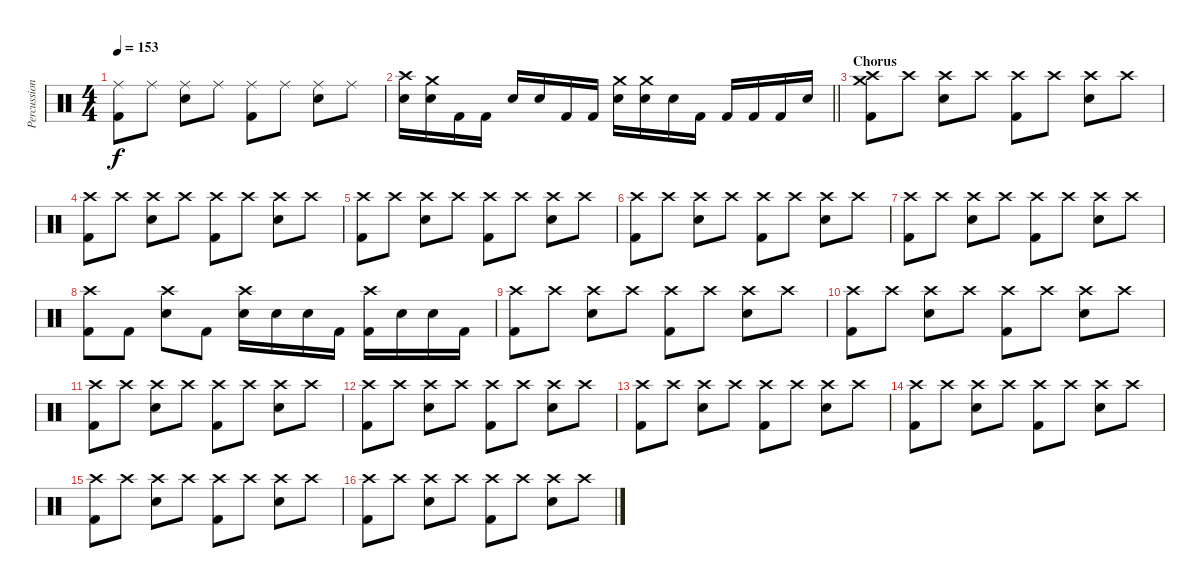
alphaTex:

\track ("Percussion" "Percussion") {instrument percussion}
\staff {score}
\articulation defaults
\ts (4 4)
\tempo 153
\clef neutral
\ks c
("Ride (middle)" "Kick (hit) 2").8{dy f} "Ride (middle)".8 ("Ride (middle)" "Snare (hit) 2").8 "Ride (middle)".8 ("Ride (middle)" "Kick (hit) 2").8 "Ride (middle)".8 ("Ride (middle)" "Snare (hit) 2").8 "Ride (middle)".8 |
\barLineRight lightlight
("Crash high (hit)" "Snare (hit) 2").16 ("Crash medium (hit)" "Snare (hit) 2").16 "Kick (hit) 2".16 "Kick (hit) 2".16 "Snare (hit) 2".16 "Snare (hit) 2".16 "Kick (hit) 2".16 "Kick (hit) 2".16 ("Crash medium (hit)" "Snare (hit) 2").16 ("Crash medium (hit)" "Snare (hit) 2").16 "Snare (hit) 2".16 "Kick (hit) 2".16 "Kick (hit) 2".16 "Kick (hit) 2".16 "Kick (hit) 2".16 "Snare (hit) 2".16 |
\section ("" "Chorus")
("Crash high (hit)" "Crash medium (hit)" "Kick (hit) 2").8 "Crash high (hit)".8 ("Crash high (hit)" "Snare (hit) 2").8 "Crash high (hit)".8 ("Crash high (hit)" "Kick (hit) 2").8 "Crash high (hit)".8 ("Crash high (hit)" "Snare (hit) 2").8 "Crash high (hit)".8 |
("Crash high (hit)" "Kick (hit) 2").8 "Crash high (hit)".8 ("Crash high (hit)" "Snare (hit) 2").8 "Crash high (hit)".8 ("Crash high (hit)" "Kick (hit) 2").8 "Crash high (hit)".8 ("Crash high (hit)" "Snare (hit) 2").8 "Crash high (hit)".8 |
("Crash high (hit)" "Kick (hit) 2").8 "Crash high (hit)".8 ("Crash high (hit)" "Snare (hit) 2").8 "Crash high (hit)".8 ("Crash high (hit)" "Kick (hit) 2").8 "Crash high (hit)".8 ("Crash high (hit)" "Snare (hit) 2").8 "Crash high (hit)".8 |
("Crash high (hit)" "Kick (hit) 2").8 "Crash high (hit)".8 ("Crash high (hit)" "Snare (hit) 2").8 "Crash high (hit)".8 ("Crash high (hit)" "Kick (hit) 2").8 "Crash high (hit)".8 ("Crash high (hit)" "Snare (hit) 2").8 "Crash high (hit)".8 |
("Crash high (hit)" "Kick (hit) 2").8 "Crash high (hit)".8 ("Crash high (hit)" "Snare (hit) 2").8 "Crash high (hit)".8 ("Crash high (hit)" "Kick (hit) 2").8 "Crash high (hit)".8 ("Crash high (hit)" "Snare (hit) 2").8 "Crash high (hit)".8 |
("Crash high (hit)" "Kick (hit) 2").8 "Kick (hit) 2".8 ("Crash high (hit)" "Snare (hit) 2").8 "Kick (hit) 2".8 ("Crash high (hit)" "Snare (hit) 2").16 "Snare (hit) 2".16 "Snare (hit) 2".16 "Kick (hit) 2".16 ("Crash high (hit)" "Kick (hit) 2").16 "Snare (hit) 2".16 "Snare (hit) 2".16 "Kick (hit) 2".16 |
("Crash high (hit)" "Kick (hit) 2").8 "Crash high (hit)".8 ("Crash high (hit)" "Snare (hit) 2").8 "Crash high (hit)".8 ("Crash high (hit)" "Kick (hit) 2").8 "Crash high (hit)".8 ("Crash high (hit)" "Snare (hit) 2").8 "Crash high (hit)".8 |
("Crash high (hit)" "Kick (hit) 2").8 "Crash high (hit)".8 ("Crash high (hit)" "Snare (hit) 2").8 "Crash high (hit)".8 ("Crash high (hit)" "Kick (hit) 2").8 "Crash high (hit)".8 ("Crash high (hit)" "Snare (hit) 2").8 "Crash high (hit)".8 |
("Crash high (hit)" "Kick (hit) 2").8 "Crash high (hit)".8 ("Crash high (hit)" "Snare (hit) 2").8 "Crash high (hit)".8 ("Crash high (hit)" "Kick (hit) 2").8 "Crash high (hit)".8 ("Crash high (hit)" "Snare (hit) 2").8 "Crash high (hit)".8 |
("Crash high (hit)" "Kick (hit) 2").8 "Crash high (hit)".8 ("Crash high (hit)" "Snare (hit) 2").8 "Crash high (hit)".8 ("Crash high (hit)" "Kick (hit) 2").8 "Crash high (hit)".8 ("Crash high (hit)" "Snare (hit) 2").8 "Crash high (hit)".8 |
("Crash high (hit)" "Kick (hit) 2").8 "Crash high (hit)".8 ("Crash high (hit)" "Snare (hit) 2").8 "Crash high (hit)".8 ("Crash high (hit)" "Kick (hit) 2").8 "Crash high (hit)".8 ("Crash high (hit)" "Snare (hit) 2").8 "Crash high (hit)".8 |
("Crash high (hit)" "Kick (hit) 2").8 "Crash high (hit)".8 ("Crash high (hit)" "Snare (hit) 2").8 "Crash high (hit)".8 ("Crash high (hit)" "Kick (hit) 2").8 "Crash high (hit)".8 ("Crash high (hit)" "Snare (hit) 2").8 "Crash high (hit)".8 |
("Crash high (hit)" "Kick (hit) 2").8 "Crash high (hit)".8 ("Crash high (hit)" "Snare (hit) 2").8 "Crash high (hit)".8 ("Crash high (hit)" "Kick (hit) 2").8 "Crash high (hit)".8 ("Crash high (hit)" "Snare (hit) 2").8 "Crash high (hit)".8 |
("Crash high (hit)" "Kick (hit) 2").8 "Crash high (hit)".8 ("Crash high (hit)" "Snare (hit) 2").8 "Crash high (hit)".8 ("Crash high (hit)" "Kick (hit) 2").8 "Crash high (hit)".8 ("Crash high (hit)" "Snare (hit) 2").8 "Crash high (hit)".8
